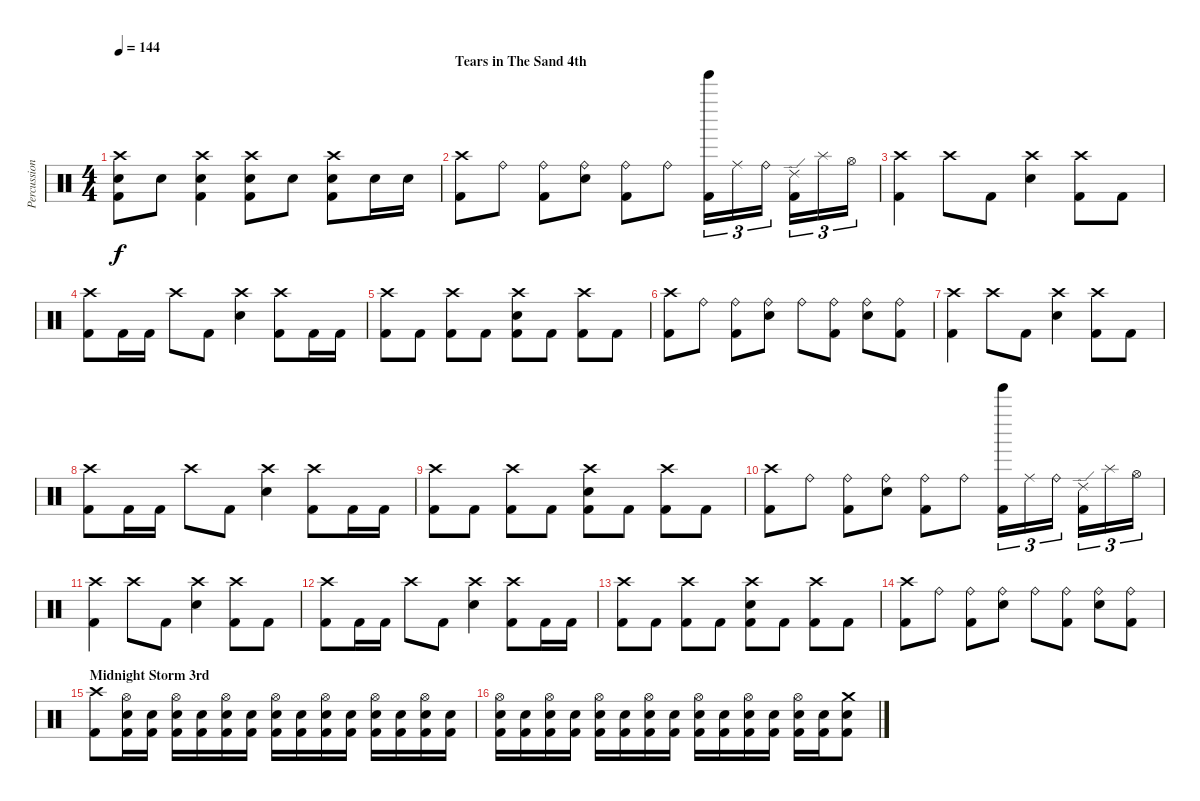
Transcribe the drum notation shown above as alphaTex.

\track ("Percussion" "Percussion") {instrument percussion}
\staff {score}
\articulation defaults
\ts (4 4)
\tempo 144
\clef neutral
\ks c
("Crash high (hit)" "Electric Snare (hit)" "Kick (hit) 2").8{dy f} "Electric Snare (hit)".8 ("Crash high (hit)" "Electric Snare (hit)" "Kick (hit) 2").4 ("Crash high (hit)" "Electric Snare (hit)" "Kick (hit) 2").8 "Electric Snare (hit)".8 ("Crash high (hit)" "Electric Snare (hit)" "Kick (hit) 2").8 "Electric Snare (hit)".16 "Electric Snare (hit)".16 |
\section ("" "Tears in The Sand 4th")
("Crash high (hit)" "Kick (hit) 2").8 "Ride (bell)".8 ("Ride (bell)" "Kick (hit) 2").8 ("Ride (bell)" "Electric Snare (hit)").8 ("Ride (bell)" "Kick (hit) 2").8 "Ride (bell)".8 ("Tinkle Bell (hit)" "Kick (hit) 2").16{tu (3 2)} "Ride (middle)".16{tu (3 2)} "Ride (bell)".16{tu (3 2)} ("Ride (edge) 2" "Kick (hit) 2").16{tu (3 2)} "Splash (hit)".16{tu (3 2)} "Hi-Hat (open)".16{tu (3 2)} |
("Crash high (hit)" "Kick (hit) 2").4 "Crash high (hit)".8 "Kick (hit) 2".8 ("Crash high (hit)" "Electric Snare (hit)").4 ("Crash high (hit)" "Kick (hit) 2").8 "Kick (hit) 2".8 |
("Crash high (hit)" "Kick (hit) 2").8 "Kick (hit) 2".16 "Kick (hit) 2".16 "Crash high (hit)".8 "Kick (hit) 2".8 ("Crash high (hit)" "Electric Snare (hit)").4 ("Crash high (hit)" "Kick (hit) 2").8 "Kick (hit) 2".16 "Kick (hit) 2".16 |
("Crash high (hit)" "Kick (hit) 2").8 "Kick (hit) 2".8 ("Crash high (hit)" "Kick (hit) 2").8 "Kick (hit) 2".8 ("Crash high (hit)" "Electric Snare (hit)" "Kick (hit) 2").8 "Kick (hit) 2".8 ("Crash high (hit)" "Kick (hit) 2").8 "Kick (hit) 2".8 |
("Crash high (hit)" "Kick (hit) 2").8 "Ride (bell)".8 ("Ride (bell)" "Kick (hit) 2").8 ("Ride (bell)" "Electric Snare (hit)").8 "Ride (bell)".8 ("Ride (bell)" "Kick (hit) 2").8 ("Ride (bell)" "Electric Snare (hit)").8 ("Ride (bell)" "Kick (hit) 2").8 |
("Crash high (hit)" "Kick (hit) 2").4 "Crash high (hit)".8 "Kick (hit) 2".8 ("Crash high (hit)" "Electric Snare (hit)").4 ("Crash high (hit)" "Kick (hit) 2").8 "Kick (hit) 2".8 |
("Crash high (hit)" "Kick (hit) 2").8 "Kick (hit) 2".16 "Kick (hit) 2".16 "Crash high (hit)".8 "Kick (hit) 2".8 ("Crash high (hit)" "Electric Snare (hit)").4 ("Crash high (hit)" "Kick (hit) 2").8 "Kick (hit) 2".16 "Kick (hit) 2".16 |
("Crash high (hit)" "Kick (hit) 2").8 "Kick (hit) 2".8 ("Crash high (hit)" "Kick (hit) 2").8 "Kick (hit) 2".8 ("Crash high (hit)" "Electric Snare (hit)" "Kick (hit) 2").8 "Kick (hit) 2".8 ("Crash high (hit)" "Kick (hit) 2").8 "Kick (hit) 2".8 |
("Crash high (hit)" "Kick (hit) 2").8 "Ride (bell)".8 ("Ride (bell)" "Kick (hit) 2").8 ("Ride (bell)" "Electric Snare (hit)").8 ("Ride (bell)" "Kick (hit) 2").8 "Ride (bell)".8 ("Tinkle Bell (hit)" "Kick (hit) 2").16{tu (3 2)} "Ride (middle)".16{tu (3 2)} "Ride (bell)".16{tu (3 2)} ("Ride (edge) 2" "Kick (hit) 2").16{tu (3 2)} "Splash (hit)".16{tu (3 2)} "Hi-Hat (open)".16{tu (3 2)} |
("Crash high (hit)" "Kick (hit) 2").4 "Crash high (hit)".8 "Kick (hit) 2".8 ("Crash high (hit)" "Electric Snare (hit)").4 ("Crash high (hit)" "Kick (hit) 2").8 "Kick (hit) 2".8 |
("Crash high (hit)" "Kick (hit) 2").8 "Kick (hit) 2".16 "Kick (hit) 2".16 "Crash high (hit)".8 "Kick (hit) 2".8 ("Crash high (hit)" "Electric Snare (hit)").4 ("Crash high (hit)" "Kick (hit) 2").8 "Kick (hit) 2".16 "Kick (hit) 2".16 |
("Crash high (hit)" "Kick (hit) 2").8 "Kick (hit) 2".8 ("Crash high (hit)" "Kick (hit) 2").8 "Kick (hit) 2".8 ("Crash high (hit)" "Electric Snare (hit)" "Kick (hit) 2").8 "Kick (hit) 2".8 ("Crash high (hit)" "Kick (hit) 2").8 "Kick (hit) 2".8 |
("Crash high (hit)" "Kick (hit) 2").8 "Ride (bell)".8 ("Ride (bell)" "Kick (hit) 2").8 ("Ride (bell)" "Electric Snare (hit)").8 "Ride (bell)".8 ("Ride (bell)" "Kick (hit) 2").8 ("Ride (bell)" "Electric Snare (hit)").8 ("Ride (bell)" "Kick (hit) 2").8 |
\section ("" "Midnight Storm 3rd")
("Crash high (hit)" "Kick (hit) 2").8 ("Hi-Hat (open)" "Electric Snare (hit)" "Kick (hit) 2").16 ("Electric Snare (hit)" "Kick (hit) 2").16 ("Hi-Hat (open)" "Electric Snare (hit)" "Kick (hit) 2").16 ("Electric Snare (hit)" "Kick (hit) 2").16 ("Hi-Hat (open)" "Electric Snare (hit)" "Kick (hit) 2").16 ("Electric Snare (hit)" "Kick (hit) 2").16 ("Hi-Hat (open)" "Electric Snare (hit)" "Kick (hit) 2").16 ("Electric Snare (hit)" "Kick (hit) 2").16 ("Hi-Hat (open)" "Electric Snare (hit)" "Kick (hit) 2").16 ("Electric Snare (hit)" "Kick (hit) 2").16 ("Hi-Hat (open)" "Electric Snare (hit)" "Kick (hit) 2").16 ("Electric Snare (hit)" "Kick (hit) 2").16 ("Hi-Hat (open)" "Electric Snare (hit)" "Kick (hit) 2").16 ("Electric Snare (hit)" "Kick (hit) 2").16 |
("Hi-Hat (open)" "Electric Snare (hit)" "Kick (hit) 2").16 ("Electric Snare (hit)" "Kick (hit) 2").16 ("Hi-Hat (open)" "Electric Snare (hit)" "Kick (hit) 2").16 ("Electric Snare (hit)" "Kick (hit) 2").16 ("Hi-Hat (open)" "Electric Snare (hit)" "Kick (hit) 2").16 ("Electric Snare (hit)" "Kick (hit) 2").16 ("Hi-Hat (open)" "Electric Snare (hit)" "Kick (hit) 2").16 ("Electric Snare (hit)" "Kick (hit) 2").16 ("Hi-Hat (open)" "Electric Snare (hit)" "Kick (hit) 2").16 ("Electric Snare (hit)" "Kick (hit) 2").16 ("Hi-Hat (open)" "Electric Snare (hit)" "Kick (hit) 2").16 ("Electric Snare (hit)" "Kick (hit) 2").16 ("Hi-Hat (open)" "Electric Snare (hit)" "Kick (hit) 2").16 ("Electric Snare (hit)" "Kick (hit) 2").16 ("Crash medium (hit)" "Electric Snare (hit)" "Kick (hit) 2").8
